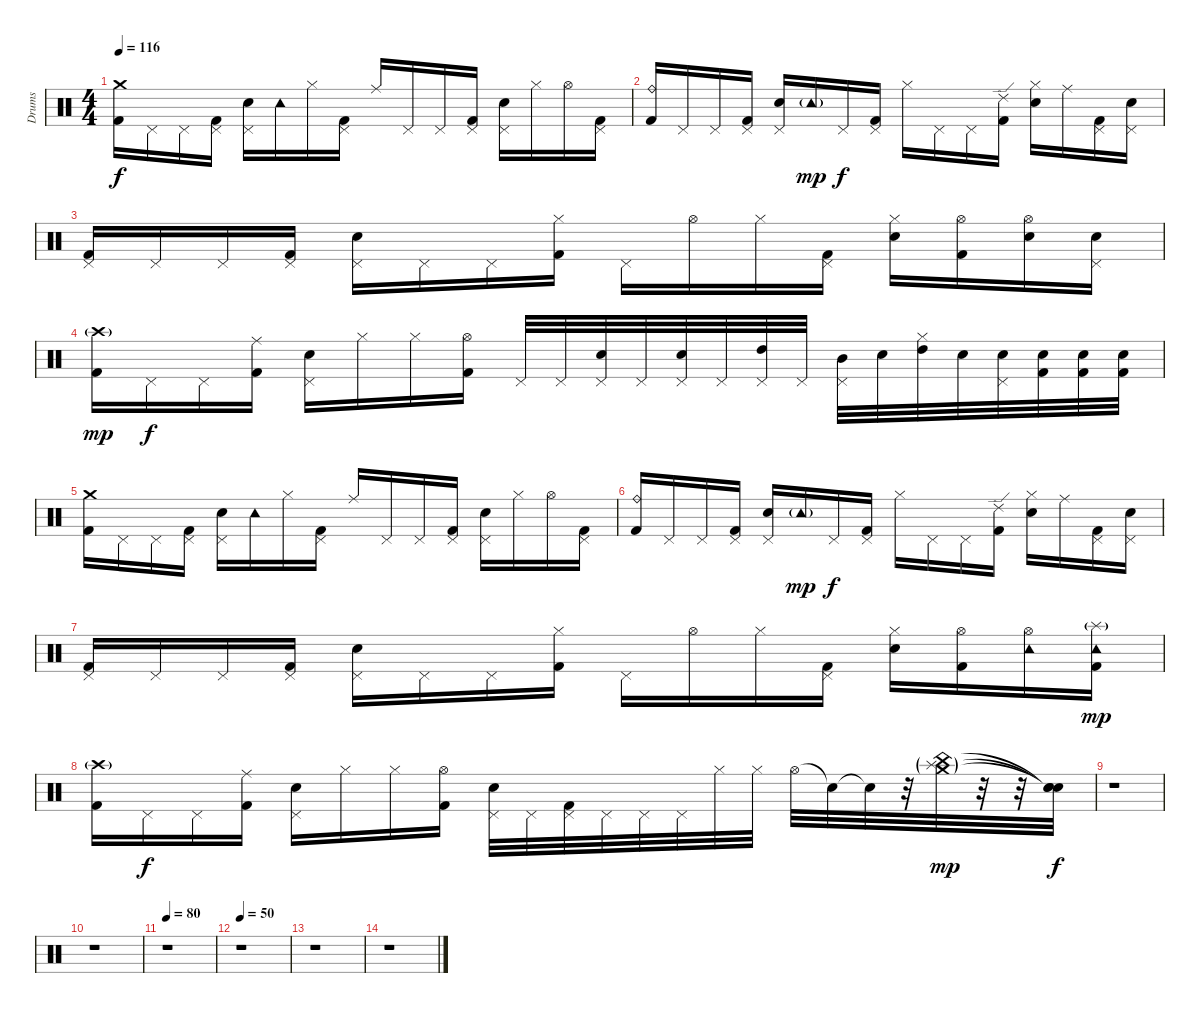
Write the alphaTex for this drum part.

\track ("Drums" "Drums") {instrument percussion}
\staff {score}
\articulation defaults
\ts (4 4)
\tempo 116
\clef neutral
\ks c
("Crash medium (hit)" "Kick (hit) 2").16{dy f} "Pedal Hi-Hat (hit)"{x}.16 "Pedal Hi-Hat (hit)".16 ("Pedal Hi-Hat (hit)"{x} "Kick (hit) 2").16 ("Pedal Hi-Hat (hit)" "Electric Snare (hit)").16 "Tambourine (hit)"{x}.16 "Hi-Hat (closed)".16 ("Pedal Hi-Hat (hit)" "Kick (hit) 2").16 "Ride (middle)".16 "Pedal Hi-Hat (hit)".16 "Pedal Hi-Hat (hit)".16 ("Pedal Hi-Hat (hit)"{x} "Kick (hit) 2").16 ("Pedal Hi-Hat (hit)" "Electric Snare (hit)").16 "Hi-Hat (closed)".16 "Hi-Hat (open)".16 ("Pedal Hi-Hat (hit)"{x} "Kick (hit) 2").16 |
("Ride (bell)" "Kick (hit) 2").16 "Pedal Hi-Hat (hit)"{x}.16 "Pedal Hi-Hat (hit)".16 ("Pedal Hi-Hat (hit)"{x} "Kick (hit) 2").16 ("Pedal Hi-Hat (hit)" "Electric Snare (hit)").16 "Tambourine (hit)"{g}.16{dy mp} "Pedal Hi-Hat (hit)".16{dy f} ("Pedal Hi-Hat (hit)" "Kick (hit) 2").16 "Hi-Hat (closed)".16 "Pedal Hi-Hat (hit)".16 "Pedal Hi-Hat (hit)".16 ("Ride (edge) 2"{x} "Kick (hit) 2").16 ("Hi-Hat (closed)" "Electric Snare (hit)").16 "Ride (middle)".16 ("Pedal Hi-Hat (hit)" "Kick (hit) 2").16 ("Pedal Hi-Hat (hit)"{x} "Electric Snare (hit)").16 |
("Pedal Hi-Hat (hit)" "Kick (hit) 2").16 "Pedal Hi-Hat (hit)"{x}.16 "Pedal Hi-Hat (hit)".16 ("Pedal Hi-Hat (hit)"{x} "Kick (hit) 2").16 ("Pedal Hi-Hat (hit)" "Electric Snare (hit)").16 "Pedal Hi-Hat (hit)"{x}.16 "Pedal Hi-Hat (hit)".16 ("Hi-Hat (closed)" "Kick (hit) 2").16 "Pedal Hi-Hat (hit)".16 "Hi-Hat (open)".16 "Hi-Hat (closed)".16 ("Pedal Hi-Hat (hit)" "Kick (hit) 2").16 ("Hi-Hat (closed)" "Electric Snare (hit)").16 ("Hi-Hat (open)" "Kick (hit) 2").16 ("Hi-Hat (open)"{x} "Electric Snare (hit)").16 ("Pedal Hi-Hat (hit)" "Electric Snare (hit)").16 |
("Crash high (hit)"{g} "Kick (hit) 2").16{dy mp} "Pedal Hi-Hat (hit)"{x}.16{dy f} "Pedal Hi-Hat (hit)".16 ("Ride (middle)" "Kick (hit) 2").16 ("Pedal Hi-Hat (hit)" "Electric Snare (hit)").16 "Hi-Hat (closed)".16 "Hi-Hat (closed)".16 ("Hi-Hat (open)" "Kick (hit) 2").16 "Pedal Hi-Hat (hit)".32 "Pedal Hi-Hat (hit)"{x}.32 ("Pedal Hi-Hat (hit)"{x} "Electric Snare (hit)").32 "Pedal Hi-Hat (hit)"{x}.32 ("Pedal Hi-Hat (hit)" "Electric Snare (hit)").32 "Pedal Hi-Hat (hit)"{x}.32 ("Pedal Hi-Hat (hit)"{x} "High Tom (hit)").32 "Pedal Hi-Hat (hit)"{x}.32 ("Pedal Hi-Hat (hit)" "Mid Tom (hit)").32 "Snare (hit)"{x}.32 ("Hi-Hat (closed)" "High Tom (hit)").32 "Snare (hit)"{x}.32 ("Pedal Hi-Hat (hit)" "Electric Snare (hit)").32 ("Snare (hit)"{x} "Kick (hit) 2").32 ("Snare (hit)"{x} "Kick (hit) 2").32 ("Snare (hit)"{x} "Kick (hit) 2").32 |
("Crash medium (hit)" "Kick (hit) 2").16 "Pedal Hi-Hat (hit)"{x}.16 "Pedal Hi-Hat (hit)".16 ("Pedal Hi-Hat (hit)"{x} "Kick (hit) 2").16 ("Pedal Hi-Hat (hit)" "Electric Snare (hit)").16 "Tambourine (hit)"{x}.16 "Hi-Hat (closed)".16 ("Pedal Hi-Hat (hit)" "Kick (hit) 2").16 "Ride (middle)".16 "Pedal Hi-Hat (hit)".16 "Pedal Hi-Hat (hit)".16 ("Pedal Hi-Hat (hit)"{x} "Kick (hit) 2").16 ("Pedal Hi-Hat (hit)" "Electric Snare (hit)").16 "Hi-Hat (closed)".16 "Hi-Hat (open)".16 ("Pedal Hi-Hat (hit)"{x} "Kick (hit) 2").16 |
("Ride (bell)" "Kick (hit) 2").16 "Pedal Hi-Hat (hit)"{x}.16 "Pedal Hi-Hat (hit)".16 ("Pedal Hi-Hat (hit)"{x} "Kick (hit) 2").16 ("Pedal Hi-Hat (hit)" "Electric Snare (hit)").16 "Tambourine (hit)"{g}.16{dy mp} "Pedal Hi-Hat (hit)".16{dy f} ("Pedal Hi-Hat (hit)" "Kick (hit) 2").16 "Hi-Hat (closed)".16 "Pedal Hi-Hat (hit)".16 "Pedal Hi-Hat (hit)".16 ("Ride (edge) 2"{x} "Kick (hit) 2").16 ("Hi-Hat (closed)" "Electric Snare (hit)").16 "Ride (middle)".16 ("Pedal Hi-Hat (hit)" "Kick (hit) 2").16 ("Pedal Hi-Hat (hit)"{x} "Electric Snare (hit)").16 |
("Pedal Hi-Hat (hit)" "Kick (hit) 2").16 "Pedal Hi-Hat (hit)"{x}.16 "Pedal Hi-Hat (hit)".16 ("Pedal Hi-Hat (hit)"{x} "Kick (hit) 2").16 ("Pedal Hi-Hat (hit)" "Electric Snare (hit)").16 "Pedal Hi-Hat (hit)"{x}.16 "Pedal Hi-Hat (hit)".16 ("Hi-Hat (closed)" "Kick (hit) 2").16 "Pedal Hi-Hat (hit)".16 "Hi-Hat (open)".16 "Hi-Hat (closed)".16 ("Pedal Hi-Hat (hit)" "Kick (hit) 2").16 ("Hi-Hat (closed)" "Electric Snare (hit)").16 ("Hi-Hat (open)" "Kick (hit) 2").16 ("Hi-Hat (open)"{x} "Tambourine (hit)").16 ("Tambourine (hit)" "Splash (hit)"{g} "Kick (hit) 2").16{dy mp} |
("Crash high (hit)"{g} "Kick (hit) 2").16 "Pedal Hi-Hat (hit)"{x}.16{dy f} "Pedal Hi-Hat (hit)".16 ("Ride (middle)" "Kick (hit) 2").16 ("Pedal Hi-Hat (hit)" "Electric Snare (hit)").16 "Hi-Hat (closed)".16 "Hi-Hat (closed)".16 ("Hi-Hat (open)" "Kick (hit) 2").16 ("Pedal Hi-Hat (hit)" "Electric Snare (hit)").32 "Pedal Hi-Hat (hit)"{x}.32 ("Pedal Hi-Hat (hit)"{x} "Kick (hit) 2").32 "Pedal Hi-Hat (hit)"{x}.32 "Pedal Hi-Hat (hit)".32 "Pedal Hi-Hat (hit)".32 "Hi-Hat (closed)".32 "Hi-Hat (closed)".32 "Hi-Hat (open)".32 "Snare (hit)"{t}.32 "Snare (hit)"{t}.32 r.32 ("Splash (hit)"{g} "China (hit)"{g} "Crash medium (hit)"{g}).32{dy mp} r.32 r.32 ("Snare (hit)"{t} "Snare (hit)"{t} "Snare (hit)"{t}).32{dy f} |
r.1 |
r.1 |
\tempo 80
r.1 |
\tempo 50
r.1 |
r.1 |
r.1
